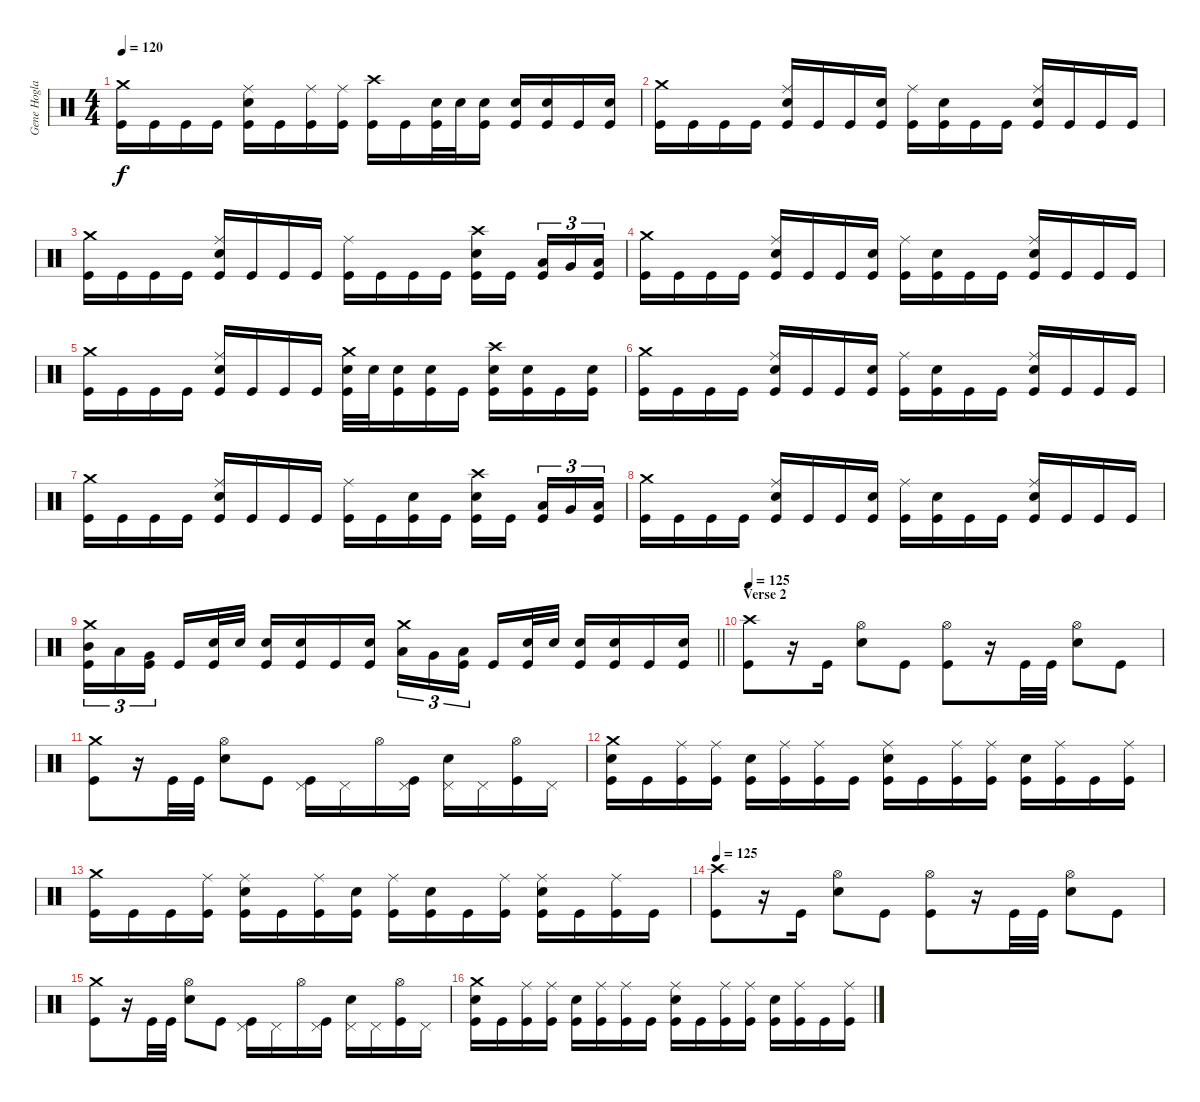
\track ("Gene Hoglan" "Gene Hogla") {instrument percussion}
\staff {score}
\articulation defaults
\ts (4 4)
\tempo 120
\clef neutral
\ks c
("Crash medium (hit)" "Kick (hit)").16{dy f} "Kick (hit)".16 "Kick (hit)".16 "Kick (hit)".16 ("Ride (middle)" "Electric Snare (hit)" "Kick (hit)").16 "Kick (hit)".16 ("Ride (middle)" "Kick (hit)").16 ("Ride (middle)" "Kick (hit)").16 ("Crash high (hit)" "Kick (hit)").16 "Kick (hit)".16 ("Electric Snare (hit)" "Kick (hit)").32 "Electric Snare (hit)".32 ("Electric Snare (hit)" "Kick (hit)").16 ("Electric Snare (hit)" "Kick (hit)").16 ("Electric Snare (hit)" "Kick (hit)").16 "Kick (hit)".16 ("Electric Snare (hit)" "Kick (hit)").16 |
("Crash medium (hit)" "Kick (hit)").16 "Kick (hit)".16 "Kick (hit)".16 "Kick (hit)".16 ("Ride (middle)" "Electric Snare (hit)" "Kick (hit)").16 "Kick (hit)".16 "Kick (hit)".16 ("Electric Snare (hit)" "Kick (hit)").16 ("Ride (middle)" "Kick (hit)").16 ("Electric Snare (hit)" "Kick (hit)").16 "Kick (hit)".16 "Kick (hit)".16 ("Ride (middle)" "Electric Snare (hit)" "Kick (hit)").16 "Kick (hit)".16 "Kick (hit)".16 "Kick (hit)".16 |
("Crash medium (hit)" "Kick (hit)").16 "Kick (hit)".16 "Kick (hit)".16 "Kick (hit)".16 ("Ride (middle)" "Electric Snare (hit)" "Kick (hit)").16 "Kick (hit)".16 "Kick (hit)".16 "Kick (hit)".16 ("Ride (middle)" "Kick (hit)").16 "Kick (hit)".16 "Kick (hit)".16 "Kick (hit)".16 ("Crash high (hit)" "Electric Snare (hit)" "Kick (hit)").16 "Kick (hit)".16{beam splitsecondary} ("Low Tom (hit)" "Kick (hit)").16{tu (3 2)} "Very Low Tom (hit)".16{tu (3 2)} ("Low Floor Tom (hit)" "Kick (hit)").16{tu (3 2)} |
("Crash medium (hit)" "Kick (hit)").16 "Kick (hit)".16 "Kick (hit)".16 "Kick (hit)".16 ("Ride (middle)" "Electric Snare (hit)" "Kick (hit)").16 "Kick (hit)".16 "Kick (hit)".16 ("Electric Snare (hit)" "Kick (hit)").16 ("Ride (middle)" "Kick (hit)").16 ("Electric Snare (hit)" "Kick (hit)").16 "Kick (hit)".16 "Kick (hit)".16 ("Ride (middle)" "Electric Snare (hit)" "Kick (hit)").16 "Kick (hit)".16 "Kick (hit)".16 "Kick (hit)".16 |
("Crash medium (hit)" "Kick (hit)").16 "Kick (hit)".16 "Kick (hit)".16 "Kick (hit)".16 ("Ride (middle)" "Electric Snare (hit)" "Kick (hit)").16 "Kick (hit)".16 "Kick (hit)".16 "Kick (hit)".16 ("Crash medium (hit)" "Electric Snare (hit)" "Kick (hit)").32 "Electric Snare (hit)".32 ("Electric Snare (hit)" "Kick (hit)").16 ("Electric Snare (hit)" "Kick (hit)").16 "Kick (hit)".16 ("Crash high (hit)" "Electric Snare (hit)" "Kick (hit)").16 ("Electric Snare (hit)" "Kick (hit)").16 "Kick (hit)".16 ("Electric Snare (hit)" "Kick (hit)").16 |
("Crash medium (hit)" "Kick (hit)").16 "Kick (hit)".16 "Kick (hit)".16 "Kick (hit)".16 ("Ride (middle)" "Electric Snare (hit)" "Kick (hit)").16 "Kick (hit)".16 "Kick (hit)".16 ("Electric Snare (hit)" "Kick (hit)").16 ("Ride (middle)" "Kick (hit)").16 ("Electric Snare (hit)" "Kick (hit)").16 "Kick (hit)".16 "Kick (hit)".16 ("Ride (middle)" "Electric Snare (hit)" "Kick (hit)").16 "Kick (hit)".16 "Kick (hit)".16 "Kick (hit)".16 |
("Crash medium (hit)" "Kick (hit)").16 "Kick (hit)".16 "Kick (hit)".16 "Kick (hit)".16 ("Ride (middle)" "Electric Snare (hit)" "Kick (hit)").16 "Kick (hit)".16 "Kick (hit)".16 "Kick (hit)".16 ("Ride (middle)" "Kick (hit)").16 "Kick (hit)".16 ("Electric Snare (hit)" "Kick (hit)").16 "Kick (hit)".16 ("Crash high (hit)" "Electric Snare (hit)" "Kick (hit)").16 "Kick (hit)".16{beam splitsecondary} ("Low Tom (hit)" "Kick (hit)").16{tu (3 2)} "Very Low Tom (hit)".16{tu (3 2)} ("Low Floor Tom (hit)" "Kick (hit)").16{tu (3 2)} |
("Crash medium (hit)" "Kick (hit)").16 "Kick (hit)".16 "Kick (hit)".16 "Kick (hit)".16 ("Ride (middle)" "Electric Snare (hit)" "Kick (hit)").16 "Kick (hit)".16 "Kick (hit)".16 ("Electric Snare (hit)" "Kick (hit)").16 ("Ride (middle)" "Kick (hit)").16 ("Electric Snare (hit)" "Kick (hit)").16 "Kick (hit)".16 "Kick (hit)".16 ("Ride (middle)" "Electric Snare (hit)" "Kick (hit)").16 "Kick (hit)".16 "Kick (hit)".16 "Kick (hit)".16 |
\barLineRight lightlight
("Crash medium (hit)" "Mid Tom (hit)" "Kick (hit)").16{tu (3 2)} "Low Tom (hit)".16{tu (3 2)} ("Very Low Tom (hit)" "Kick (hit)").16{tu (3 2) beam splitsecondary} "Kick (hit)".16 ("Electric Snare (hit)" "Kick (hit)").32 "Electric Snare (hit)".32 ("Electric Snare (hit)" "Kick (hit)").16 ("Electric Snare (hit)" "Kick (hit)").16 "Kick (hit)".16 ("Electric Snare (hit)" "Kick (hit)").16 ("Crash medium (hit)" "Low Tom (hit)").16{tu (3 2)} "Very Low Tom (hit)".16{tu (3 2)} ("Low Floor Tom (hit)" "Kick (hit)").16{tu (3 2) beam splitsecondary} "Kick (hit)".16 ("Electric Snare (hit)" "Kick (hit)").32 "Electric Snare (hit)".32 ("Electric Snare (hit)" "Kick (hit)").16 ("Electric Snare (hit)" "Kick (hit)").16 "Kick (hit)".16 ("Electric Snare (hit)" "Kick (hit)").16 |
\section ("" "Verse 2")
\tempo 125
("Crash high (hit)" "Kick (hit)").8 r.16 "Kick (hit)".16 ("Hi-Hat (open)" "Electric Snare (hit)").8 "Kick (hit)".8 ("Hi-Hat (open)" "Kick (hit)").8 r.16 "Kick (hit)".32 "Kick (hit)".32 ("Hi-Hat (open)" "Electric Snare (hit)").8 "Kick (hit)".8 |
("Crash medium (hit)" "Kick (hit)").8 r.16 "Kick (hit)".32 "Kick (hit)".32 ("Hi-Hat (open)" "Electric Snare (hit)").8 "Kick (hit)".8 ("Pedal Hi-Hat (hit)" "Kick (hit)").16 "Pedal Hi-Hat (hit)".16 "Hi-Hat (open)".16 ("Pedal Hi-Hat (hit)" "Kick (hit)").16 ("Pedal Hi-Hat (hit)" "Electric Snare (hit)").16 "Pedal Hi-Hat (hit)".16 ("Hi-Hat (open)" "Kick (hit)").16 "Pedal Hi-Hat (hit)".16 |
("Crash medium (hit)" "Electric Snare (hit)" "Kick (hit)").16 "Kick (hit)".16 ("Ride (middle)" "Kick (hit)").16 ("Ride (middle)" "Kick (hit)").16 ("Electric Snare (hit)" "Kick (hit)").16 ("Ride (middle)" "Kick (hit)").16 ("Ride (middle)" "Kick (hit)").16 "Kick (hit)".16 ("Ride (middle)" "Electric Snare (hit)" "Kick (hit)").16 "Kick (hit)".16 ("Ride (middle)" "Kick (hit)").16 ("Ride (middle)" "Kick (hit)").16 ("Electric Snare (hit)" "Kick (hit)").16 ("Ride (middle)" "Kick (hit)").16 "Kick (hit)".16 ("Ride (middle)" "Kick (hit)").16 |
("Crash medium (hit)" "Kick (hit)").16 "Kick (hit)".16 "Kick (hit)".16 ("Ride (middle)" "Kick (hit)").16 ("Ride (middle)" "Electric Snare (hit)" "Kick (hit)").16 "Kick (hit)".16 ("Ride (middle)" "Kick (hit)").16 ("Electric Snare (hit)" "Kick (hit)").16 ("Ride (middle)" "Kick (hit)").16 ("Electric Snare (hit)" "Kick (hit)").16 "Kick (hit)".16 ("Ride (middle)" "Kick (hit)").16 ("Ride (middle)" "Electric Snare (hit)" "Kick (hit)").16 "Kick (hit)".16 ("Ride (middle)" "Kick (hit)").16 "Kick (hit)".16 |
\tempo 125
("Crash high (hit)" "Kick (hit)").8 r.16 "Kick (hit)".16 ("Hi-Hat (open)" "Electric Snare (hit)").8 "Kick (hit)".8 ("Hi-Hat (open)" "Kick (hit)").8 r.16 "Kick (hit)".32 "Kick (hit)".32 ("Hi-Hat (open)" "Electric Snare (hit)").8 "Kick (hit)".8 |
("Crash medium (hit)" "Kick (hit)").8 r.16 "Kick (hit)".32 "Kick (hit)".32 ("Hi-Hat (open)" "Electric Snare (hit)").8 "Kick (hit)".8 ("Pedal Hi-Hat (hit)" "Kick (hit)").16 "Pedal Hi-Hat (hit)".16 "Hi-Hat (open)".16 ("Pedal Hi-Hat (hit)" "Kick (hit)").16 ("Pedal Hi-Hat (hit)" "Electric Snare (hit)").16 "Pedal Hi-Hat (hit)".16 ("Hi-Hat (open)" "Kick (hit)").16 "Pedal Hi-Hat (hit)".16 |
("Crash medium (hit)" "Electric Snare (hit)" "Kick (hit)").16 "Kick (hit)".16 ("Ride (middle)" "Kick (hit)").16 ("Ride (middle)" "Kick (hit)").16 ("Electric Snare (hit)" "Kick (hit)").16 ("Ride (middle)" "Kick (hit)").16 ("Ride (middle)" "Kick (hit)").16 "Kick (hit)".16 ("Ride (middle)" "Electric Snare (hit)" "Kick (hit)").16 "Kick (hit)".16 ("Ride (middle)" "Kick (hit)").16 ("Ride (middle)" "Kick (hit)").16 ("Electric Snare (hit)" "Kick (hit)").16 ("Ride (middle)" "Kick (hit)").16 "Kick (hit)".16 ("Ride (middle)" "Kick (hit)").16
